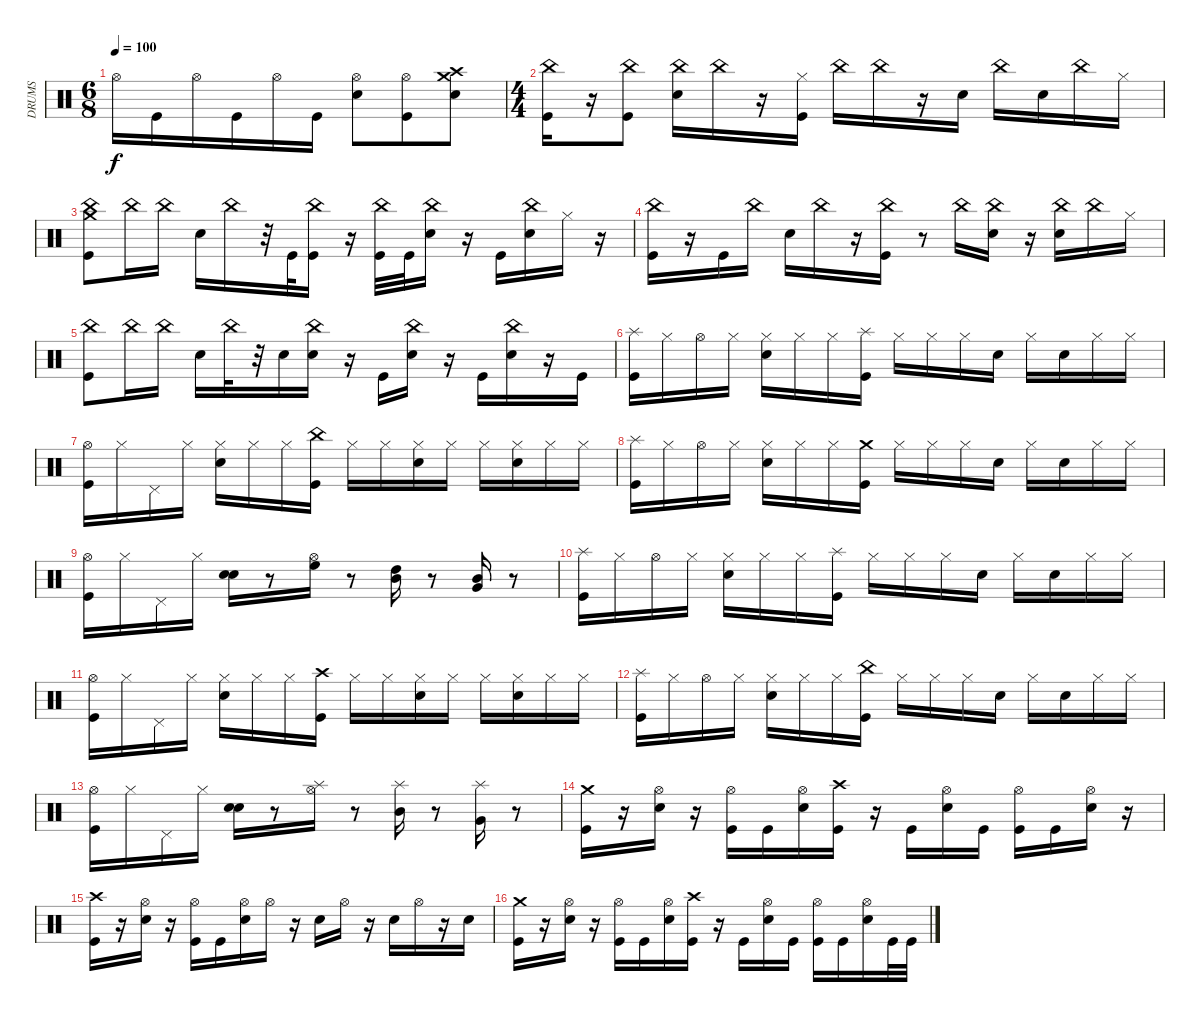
\track ("DRUMS" "DRUMS") {instrument percussion}
\staff {score}
\articulation defaults
\ts (6 8)
\tempo 100
\clef neutral
\ks c "Hi-Hat (open)".16{dy f} "Kick (hit)".16 "Hi-Hat (open)".16 "Kick (hit)".16 "Hi-Hat (open)".16 "Kick (hit)".16
("Snare (hit) 2" "Hi-Hat (open)").8 ("Kick (hit)" "Hi-Hat (open)").8 ("Crash medium (hit)" "Snare (hit) 2" "Crash high (hit)").8 |
\ts (4 4)
("China (hit)" "Kick (hit)").16 r.16 ("China (hit)" "Kick (hit)").8 ("China (hit)" "Snare (hit) 2").16 "China (hit)".16 r.16 ("Hi-Hat (closed)" "Kick (hit)").16 "China (hit)".16 "China (hit)".16 r.16 "Snare (hit) 2".16 "China (hit)".16 "Snare (hit) 2".16 "China (hit)".16 "Hi-Hat (closed)".16 |
("China (hit)" "Crash medium (hit)" "Kick (hit)").8 "China (hit)".16 "China (hit)".16 "Snare (hit) 2".16 "China (hit)".16 r.32 "Kick (hit)".32 ("Kick (hit)" "China (hit)").16 r.16 ("China (hit)" "Kick (hit)").32 "Kick (hit)".32 ("China (hit)" "Snare (hit) 2").16 r.16 "Kick (hit)".16 ("Snare (hit) 2" "China (hit)").16 "Hi-Hat (closed)".16 r.16 |
("China (hit)" "Kick (hit)").16 r.16 "Kick (hit)".16 "China (hit)".16 "Snare (hit) 2".16 "China (hit)".16 r.16 ("China (hit)" "Kick (hit)").16 r.8 "China (hit)".16 ("China (hit)" "Snare (hit) 2").16 r.16 ("China (hit)" "Snare (hit) 2").16 "China (hit)".16 "Hi-Hat (closed)".16 |
("China (hit)" "Kick (hit)").8 "China (hit)".16 "China (hit)".16 "Snare (hit) 2".16 "China (hit)".32 r.32 "Snare (hit) 2".16 ("China (hit)" "Snare (hit) 2").16 r.16 "Kick (hit)".16 ("China (hit)" "Snare (hit) 2").16 r.16 "Kick (hit)".16 ("China (hit)" "Snare (hit) 2").16 r.16 "Kick (hit)".16 |
("Splash (hit)" "Kick (hit)").16 "Hi-Hat (closed)".16 "Hi-Hat (open)".16 "Hi-Hat (closed)".16 ("Hi-Hat (closed)" "Snare (hit) 2").16 "Hi-Hat (closed)".16 "Hi-Hat (closed)".16 ("Splash (hit)" "Kick (hit)").16 "Hi-Hat (closed)".16 "Hi-Hat (closed)".16 "Hi-Hat (closed)".16 "Snare (hit) 2".16 "Hi-Hat (closed)".16 "Snare (hit) 2".16 "Hi-Hat (closed)".16 "Hi-Hat (closed)".16 |
("Hi-Hat (open)" "Kick (hit)").16 "Hi-Hat (closed)".16 "Pedal Hi-Hat (hit)".16 "Hi-Hat (closed)".16 ("Snare (hit) 2" "Hi-Hat (closed)").16 "Hi-Hat (closed)".16 "Hi-Hat (closed)".16 ("Kick (hit)" "China (hit)").16 "Hi-Hat (closed)".16 "Hi-Hat (closed)".16 ("Snare (hit) 2" "Hi-Hat (closed)").16 "Hi-Hat (closed)".16 "Hi-Hat (closed)".16 ("Snare (hit) 2" "Hi-Hat (closed)").16 "Hi-Hat (closed)".16 "Hi-Hat (closed)".16 |
("Splash (hit)" "Kick (hit)").16 "Hi-Hat (closed)".16 "Hi-Hat (open)".16 "Hi-Hat (closed)".16 ("Hi-Hat (closed)" "Snare (hit) 2").16 "Hi-Hat (closed)".16 "Hi-Hat (closed)".16 ("Crash medium (hit)" "Kick (hit)").16 "Hi-Hat (closed)".16 "Hi-Hat (closed)".16 "Hi-Hat (closed)".16 "Snare (hit) 2".16 "Hi-Hat (closed)".16 "Snare (hit) 2".16 "Hi-Hat (closed)".16 "Hi-Hat (closed)".16 |
("Hi-Hat (open)" "Kick (hit)").16 "Hi-Hat (closed)".16 "Pedal Hi-Hat (hit)".16 "Hi-Hat (closed)".16 ("Snare (hit) 2" "Electric Snare (hit)").16 r.8 ("High Floor Tom (hit)" "Hi-Hat (open)").16 r.8 ("Mid Tom (hit)" "High Tom (hit)").16 r.8 ("Very Low Tom (hit)" "Mid Tom (hit)").16 r.8 |
("Splash (hit)" "Kick (hit)").16 "Hi-Hat (closed)".16 "Hi-Hat (open)".16 "Hi-Hat (closed)".16 ("Hi-Hat (closed)" "Snare (hit) 2").16 "Hi-Hat (closed)".16 "Hi-Hat (closed)".16 ("Splash (hit)" "Kick (hit)").16 "Hi-Hat (closed)".16 "Hi-Hat (closed)".16 "Hi-Hat (closed)".16 "Snare (hit) 2".16 "Hi-Hat (closed)".16 "Snare (hit) 2".16 "Hi-Hat (closed)".16 "Hi-Hat (closed)".16 |
("Hi-Hat (open)" "Kick (hit)").16 "Hi-Hat (closed)".16 "Pedal Hi-Hat (hit)".16 "Hi-Hat (closed)".16 ("Snare (hit) 2" "Hi-Hat (closed)").16 "Hi-Hat (closed)".16 "Hi-Hat (closed)".16 ("Kick (hit)" "Crash high (hit)").16 "Hi-Hat (closed)".16 "Hi-Hat (closed)".16 ("Snare (hit) 2" "Hi-Hat (closed)").16 "Hi-Hat (closed)".16 "Hi-Hat (closed)".16 ("Snare (hit) 2" "Hi-Hat (closed)").16 "Hi-Hat (closed)".16 "Hi-Hat (closed)".16 |
("Splash (hit)" "Kick (hit)").16 "Hi-Hat (closed)".16 "Hi-Hat (open)".16 "Hi-Hat (closed)".16 ("Hi-Hat (closed)" "Snare (hit) 2").16 "Hi-Hat (closed)".16 "Hi-Hat (closed)".16 ("Kick (hit)" "China (hit)").16 "Hi-Hat (closed)".16 "Hi-Hat (closed)".16 "Hi-Hat (closed)".16 "Snare (hit) 2".16 "Hi-Hat (closed)".16 "Snare (hit) 2".16 "Hi-Hat (closed)".16 "Hi-Hat (closed)".16 |
("Kick (hit)" "Hi-Hat (open)").16 "Hi-Hat (closed)".16 "Pedal Hi-Hat (hit)".16 "Hi-Hat (closed)".16 ("Electric Snare (hit)" "Snare (hit) 2").16 r.8 ("Splash (hit)" "Hi-Hat (open)").16 r.8 ("Mid Tom (hit)" "Splash (hit)").16 r.8 ("Splash (hit)" "Very Low Tom (hit)").16 r.8 |
("Crash medium (hit)" "Kick (hit)").16 r.16 ("Snare (hit) 2" "Hi-Hat (open)").16 r.16 ("Kick (hit)" "Hi-Hat (open)").16 "Kick (hit)".16 ("Snare (hit) 2" "Hi-Hat (open)").16 ("Crash high (hit)" "Kick (hit)").16 r.16 "Kick (hit)".16 ("Hi-Hat (open)" "Snare (hit) 2").16 "Kick (hit)".16 ("Kick (hit)" "Hi-Hat (open)").16 "Kick (hit)".16 ("Hi-Hat (open)" "Electric Snare (hit)").16 r.16 |
("Crash high (hit)" "Kick (hit)").16 r.16 ("Snare (hit) 2" "Hi-Hat (open)").16 r.16 ("Kick (hit)" "Hi-Hat (open)").16 "Kick (hit)".16 ("Hi-Hat (open)" "Snare (hit) 2").16 "Hi-Hat (open)".16 r.16 "Snare (hit) 2".16 "Hi-Hat (open)".16 r.16 "Snare (hit) 2".16 "Hi-Hat (open)".16 r.16 "Snare (hit) 2".16 |
("Kick (hit)" "Crash medium (hit)").16 r.16 ("Hi-Hat (open)" "Snare (hit) 2").16 r.16 ("Hi-Hat (open)" "Kick (hit)").16 "Kick (hit)".16 ("Snare (hit) 2" "Hi-Hat (open)").16 ("Kick (hit)" "Crash high (hit)").16 r.16 "Kick (hit)".16 ("Hi-Hat (open)" "Snare (hit) 2").16 "Kick (hit)".16 ("Hi-Hat (open)" "Kick (hit)").16 "Kick (hit)".16 ("Hi-Hat (open)" "Electric Snare (hit)").16 "Kick (hit)".32 "Kick (hit)".32
